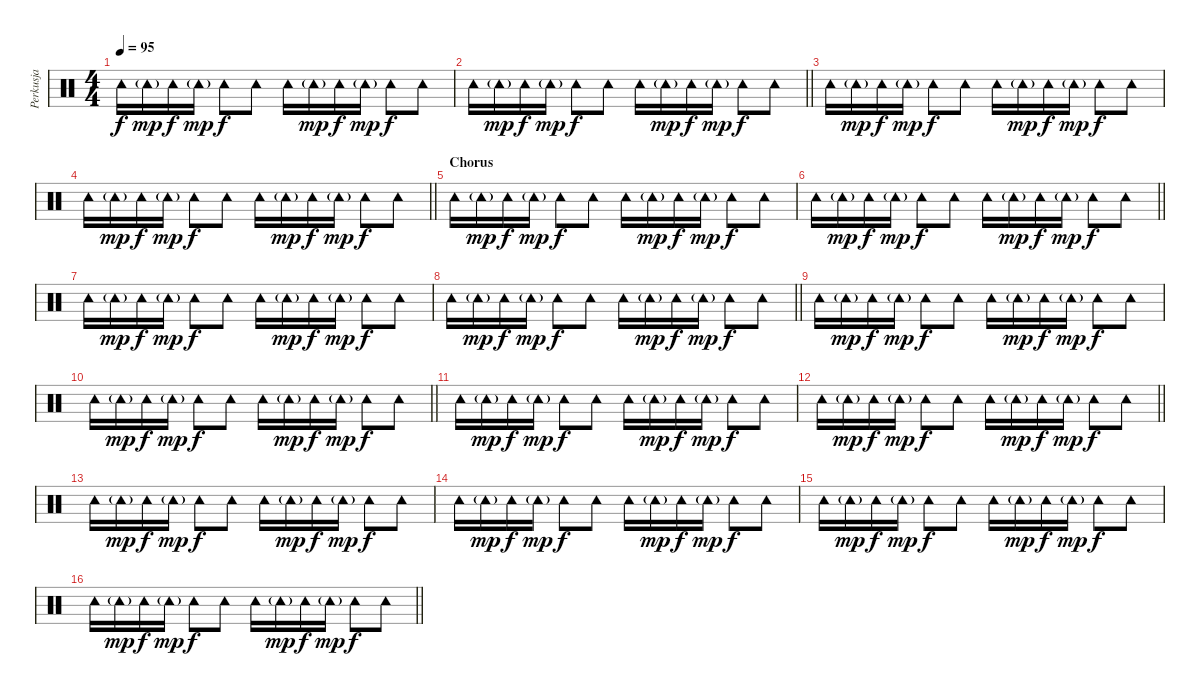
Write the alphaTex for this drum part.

\track ("Perkusja" "Perkusja") {instrument percussion}
\staff {score}
\articulation defaults
\ts (4 4)
\tempo 95
\clef neutral
\ks c "Tambourine (hit)".16{dy f} "Tambourine (hit)"{g}.16{dy mp} "Tambourine (hit)".16{dy f} "Tambourine (hit)"{g}.16{dy mp} "Tambourine (hit)".8{dy f} "Tambourine (hit)".8 "Tambourine (hit)".16 "Tambourine (hit)"{g}.16{dy mp} "Tambourine (hit)".16{dy f} "Tambourine (hit)"{g}.16{dy mp} "Tambourine (hit)".8{dy f} "Tambourine (hit)".8
|
\barLineRight lightlight "Tambourine (hit)".16 "Tambourine (hit)"{g}.16{dy mp} "Tambourine (hit)".16{dy f} "Tambourine (hit)"{g}.16{dy mp} "Tambourine (hit)".8{dy f} "Tambourine (hit)".8 "Tambourine (hit)".16 "Tambourine (hit)"{g}.16{dy mp} "Tambourine (hit)".16{dy f} "Tambourine (hit)"{g}.16{dy mp} "Tambourine (hit)".8{dy f} "Tambourine (hit)".8
|
"Tambourine (hit)".16 "Tambourine (hit)"{g}.16{dy mp} "Tambourine (hit)".16{dy f} "Tambourine (hit)"{g}.16{dy mp} "Tambourine (hit)".8{dy f} "Tambourine (hit)".8 "Tambourine (hit)".16 "Tambourine (hit)"{g}.16{dy mp} "Tambourine (hit)".16{dy f} "Tambourine (hit)"{g}.16{dy mp} "Tambourine (hit)".8{dy f} "Tambourine (hit)".8 |
\barLineRight lightlight "Tambourine (hit)".16 "Tambourine (hit)"{g}.16{dy mp} "Tambourine (hit)".16{dy f} "Tambourine (hit)"{g}.16{dy mp} "Tambourine (hit)".8{dy f} "Tambourine (hit)".8 "Tambourine (hit)".16 "Tambourine (hit)"{g}.16{dy mp} "Tambourine (hit)".16{dy f} "Tambourine (hit)"{g}.16{dy mp} "Tambourine (hit)".8{dy f} "Tambourine (hit)".8
|
\section ("" "Chorus")
"Tambourine (hit)".16 "Tambourine (hit)"{g}.16{dy mp} "Tambourine (hit)".16{dy f} "Tambourine (hit)"{g}.16{dy mp} "Tambourine (hit)".8{dy f} "Tambourine (hit)".8 "Tambourine (hit)".16 "Tambourine (hit)"{g}.16{dy mp} "Tambourine (hit)".16{dy f} "Tambourine (hit)"{g}.16{dy mp} "Tambourine (hit)".8{dy f} "Tambourine (hit)".8 |
\barLineRight lightlight "Tambourine (hit)".16 "Tambourine (hit)"{g}.16{dy mp} "Tambourine (hit)".16{dy f} "Tambourine (hit)"{g}.16{dy mp} "Tambourine (hit)".8{dy f} "Tambourine (hit)".8 "Tambourine (hit)".16 "Tambourine (hit)"{g}.16{dy mp} "Tambourine (hit)".16{dy f} "Tambourine (hit)"{g}.16{dy mp} "Tambourine (hit)".8{dy f} "Tambourine (hit)".8
|
"Tambourine (hit)".16 "Tambourine (hit)"{g}.16{dy mp} "Tambourine (hit)".16{dy f} "Tambourine (hit)"{g}.16{dy mp} "Tambourine (hit)".8{dy f} "Tambourine (hit)".8 "Tambourine (hit)".16 "Tambourine (hit)"{g}.16{dy mp} "Tambourine (hit)".16{dy f} "Tambourine (hit)"{g}.16{dy mp} "Tambourine (hit)".8{dy f} "Tambourine (hit)".8 |
\barLineRight lightlight "Tambourine (hit)".16 "Tambourine (hit)"{g}.16{dy mp} "Tambourine (hit)".16{dy f} "Tambourine (hit)"{g}.16{dy mp} "Tambourine (hit)".8{dy f} "Tambourine (hit)".8 "Tambourine (hit)".16 "Tambourine (hit)"{g}.16{dy mp} "Tambourine (hit)".16{dy f} "Tambourine (hit)"{g}.16{dy mp} "Tambourine (hit)".8{dy f} "Tambourine (hit)".8
|
"Tambourine (hit)".16 "Tambourine (hit)"{g}.16{dy mp} "Tambourine (hit)".16{dy f} "Tambourine (hit)"{g}.16{dy mp} "Tambourine (hit)".8{dy f} "Tambourine (hit)".8 "Tambourine (hit)".16 "Tambourine (hit)"{g}.16{dy mp} "Tambourine (hit)".16{dy f} "Tambourine (hit)"{g}.16{dy mp} "Tambourine (hit)".8{dy f} "Tambourine (hit)".8 |
\barLineRight lightlight "Tambourine (hit)".16 "Tambourine (hit)"{g}.16{dy mp} "Tambourine (hit)".16{dy f} "Tambourine (hit)"{g}.16{dy mp} "Tambourine (hit)".8{dy f} "Tambourine (hit)".8 "Tambourine (hit)".16 "Tambourine (hit)"{g}.16{dy mp} "Tambourine (hit)".16{dy f} "Tambourine (hit)"{g}.16{dy mp} "Tambourine (hit)".8{dy f} "Tambourine (hit)".8
|
"Tambourine (hit)".16 "Tambourine (hit)"{g}.16{dy mp} "Tambourine (hit)".16{dy f} "Tambourine (hit)"{g}.16{dy mp} "Tambourine (hit)".8{dy f} "Tambourine (hit)".8 "Tambourine (hit)".16 "Tambourine (hit)"{g}.16{dy mp} "Tambourine (hit)".16{dy f} "Tambourine (hit)"{g}.16{dy mp} "Tambourine (hit)".8{dy f} "Tambourine (hit)".8 |
\barLineRight lightlight "Tambourine (hit)".16 "Tambourine (hit)"{g}.16{dy mp} "Tambourine (hit)".16{dy f} "Tambourine (hit)"{g}.16{dy mp} "Tambourine (hit)".8{dy f} "Tambourine (hit)".8 "Tambourine (hit)".16 "Tambourine (hit)"{g}.16{dy mp} "Tambourine (hit)".16{dy f} "Tambourine (hit)"{g}.16{dy mp} "Tambourine (hit)".8{dy f} "Tambourine (hit)".8
|
"Tambourine (hit)".16 "Tambourine (hit)"{g}.16{dy mp} "Tambourine (hit)".16{dy f} "Tambourine (hit)"{g}.16{dy mp} "Tambourine (hit)".8{dy f} "Tambourine (hit)".8 "Tambourine (hit)".16 "Tambourine (hit)"{g}.16{dy mp} "Tambourine (hit)".16{dy f} "Tambourine (hit)"{g}.16{dy mp} "Tambourine (hit)".8{dy f} "Tambourine (hit)".8 |
"Tambourine (hit)".16 "Tambourine (hit)"{g}.16{dy mp} "Tambourine (hit)".16{dy f} "Tambourine (hit)"{g}.16{dy mp} "Tambourine (hit)".8{dy f} "Tambourine (hit)".8 "Tambourine (hit)".16 "Tambourine (hit)"{g}.16{dy mp} "Tambourine (hit)".16{dy f} "Tambourine (hit)"{g}.16{dy mp} "Tambourine (hit)".8{dy f} "Tambourine (hit)".8 |
"Tambourine (hit)".16 "Tambourine (hit)"{g}.16{dy mp} "Tambourine (hit)".16{dy f} "Tambourine (hit)"{g}.16{dy mp} "Tambourine (hit)".8{dy f} "Tambourine (hit)".8 "Tambourine (hit)".16 "Tambourine (hit)"{g}.16{dy mp} "Tambourine (hit)".16{dy f} "Tambourine (hit)"{g}.16{dy mp} "Tambourine (hit)".8{dy f} "Tambourine (hit)".8 |
\barLineRight lightlight "Tambourine (hit)".16 "Tambourine (hit)"{g}.16{dy mp} "Tambourine (hit)".16{dy f} "Tambourine (hit)"{g}.16{dy mp} "Tambourine (hit)".8{dy f} "Tambourine (hit)".8 "Tambourine (hit)".16 "Tambourine (hit)"{g}.16{dy mp} "Tambourine (hit)".16{dy f} "Tambourine (hit)"{g}.16{dy mp} "Tambourine (hit)".8{dy f} "Tambourine (hit)".8
